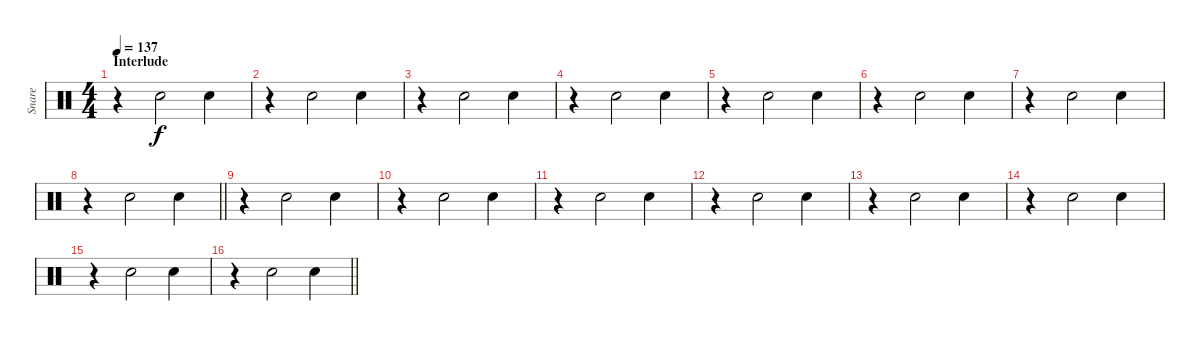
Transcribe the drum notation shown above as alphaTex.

\track ("Snare" "Snare") {instrument percussion}
\staff {score}
\articulation defaults
\ts (4 4)
\section ("" "Interlude")
\tempo 137
\clef neutral
\ks c
r.4{dy f} "Electric Snare (hit)".2 "Electric Snare (hit)".4 |
r.4 "Electric Snare (hit)".2 "Electric Snare (hit)".4 |
r.4 "Electric Snare (hit)".2 "Electric Snare (hit)".4 |
r.4 "Electric Snare (hit)".2 "Electric Snare (hit)".4 |
r.4 "Electric Snare (hit)".2 "Electric Snare (hit)".4 |
r.4 "Electric Snare (hit)".2 "Electric Snare (hit)".4 |
r.4 "Electric Snare (hit)".2 "Electric Snare (hit)".4 |
\barLineRight lightlight
r.4 "Electric Snare (hit)".2 "Electric Snare (hit)".4 |
\section ("" "")
r.4 "Electric Snare (hit)".2 "Electric Snare (hit)".4 |
r.4 "Electric Snare (hit)".2 "Electric Snare (hit)".4 |
r.4 "Electric Snare (hit)".2 "Electric Snare (hit)".4 |
r.4 "Electric Snare (hit)".2 "Electric Snare (hit)".4 |
r.4 "Electric Snare (hit)".2 "Electric Snare (hit)".4 |
r.4 "Electric Snare (hit)".2 "Electric Snare (hit)".4 |
r.4 "Electric Snare (hit)".2 "Electric Snare (hit)".4 |
\barLineRight lightlight
r.4 "Electric Snare (hit)".2 "Electric Snare (hit)".4
